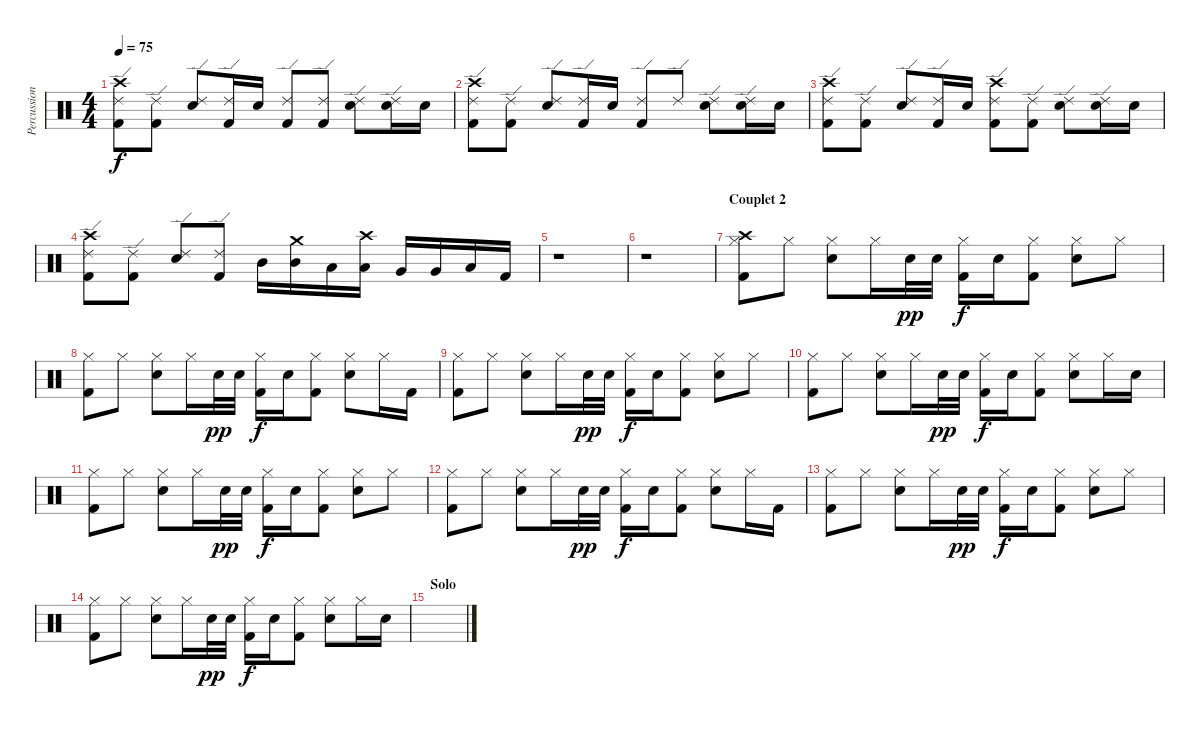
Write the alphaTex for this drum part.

\track ("Percussions" "Percussion") {instrument percussion}
\staff {score}
\articulation defaults
\ts (4 4)
\tempo 75
\clef neutral
\ks c
("Crash high (hit)" "Kick (hit) 2" "Ride (edge) 2").8{dy f} ("Kick (hit) 2" "Ride (edge) 2").8 ("Snare (hit) 2" "Ride (edge) 2").8 ("Kick (hit) 2" "Ride (edge) 2").16 "Snare (hit) 2".16 ("Kick (hit) 2" "Ride (edge) 2").8 ("Kick (hit) 2" "Ride (edge) 2").8 ("Snare (hit) 2" "Ride (edge) 2").8 ("Snare (hit) 2" "Ride (edge) 2").16 "Snare (hit) 2".16 |
("Crash high (hit)" "Kick (hit) 2" "Ride (edge) 2").8 ("Kick (hit) 2" "Ride (edge) 2").8 ("Snare (hit) 2" "Ride (edge) 2").8 ("Kick (hit) 2" "Ride (edge) 2").16 "Snare (hit) 2".16 ("Kick (hit) 2" "Ride (edge) 2").8 "Ride (edge) 2".8 ("Snare (hit) 2" "Ride (edge) 2").8 ("Snare (hit) 2" "Ride (edge) 2").16 "Snare (hit) 2".16 |
("Crash high (hit)" "Kick (hit) 2" "Ride (edge) 2").8 ("Kick (hit) 2" "Ride (edge) 2").8 ("Snare (hit) 2" "Ride (edge) 2").8 ("Kick (hit) 2" "Ride (edge) 2").16 "Snare (hit) 2".16 ("Crash high (hit)" "Kick (hit) 2" "Ride (edge) 2").8 ("Kick (hit) 2" "Ride (edge) 2").8 ("Snare (hit) 2" "Ride (edge) 2").8 ("Snare (hit) 2" "Ride (edge) 2").16 "Snare (hit) 2".16 |
("Crash high (hit)" "Kick (hit) 2" "Ride (edge) 2").8 ("Kick (hit) 2" "Ride (edge) 2").8 ("Electric Snare (hit)" "Ride (edge) 2").8 ("Kick (hit) 2" "Ride (edge) 2").8 "Mid Tom (hit)".16 ("Crash medium (hit)" "Mid Tom (hit)").16 "Low Tom (hit)".16 ("Crash high (hit)" "Low Tom (hit)").16 "Very Low Tom (hit)".16 "Very Low Tom (hit)".16 "Low Floor Tom (hit)".16 "Kick (hit) 2".16 |
r.1 |
r.1 |
\section ("" "Couplet 2")
("Crash high (hit)" "Kick (hit) 2" "Hi-Hat (closed)").8 "Hi-Hat (closed)".8 ("Snare (hit) 2" "Hi-Hat (closed)").8 "Hi-Hat (closed)".16 "Snare (hit) 2".32{dy pp} "Snare (hit) 2".32 ("Kick (hit) 2" "Hi-Hat (closed)").16{dy f} "Snare (hit) 2".16 ("Kick (hit) 2" "Hi-Hat (closed)").8 ("Snare (hit) 2" "Hi-Hat (closed)").8 "Hi-Hat (closed)".8 |
("Kick (hit) 2" "Hi-Hat (closed)").8 "Hi-Hat (closed)".8 ("Snare (hit) 2" "Hi-Hat (closed)").8 "Hi-Hat (closed)".16 "Snare (hit) 2".32{dy pp} "Snare (hit) 2".32 ("Kick (hit) 2" "Hi-Hat (closed)").16{dy f} "Snare (hit) 2".16 ("Kick (hit) 2" "Hi-Hat (closed)").8 ("Snare (hit) 2" "Hi-Hat (closed)").8 "Hi-Hat (closed)".16 "Kick (hit) 2".16 |
("Kick (hit) 2" "Hi-Hat (closed)").8 "Hi-Hat (closed)".8 ("Snare (hit) 2" "Hi-Hat (closed)").8 "Hi-Hat (closed)".16 "Snare (hit) 2".32{dy pp} "Snare (hit) 2".32 ("Kick (hit) 2" "Hi-Hat (closed)").16{dy f} "Snare (hit) 2".16 ("Kick (hit) 2" "Hi-Hat (closed)").8 ("Snare (hit) 2" "Hi-Hat (closed)").8 "Hi-Hat (closed)".8 |
("Kick (hit) 2" "Hi-Hat (closed)").8 "Hi-Hat (closed)".8 ("Snare (hit) 2" "Hi-Hat (closed)").8 "Hi-Hat (closed)".16 "Snare (hit) 2".32{dy pp} "Snare (hit) 2".32 ("Kick (hit) 2" "Hi-Hat (closed)").16{dy f} "Snare (hit) 2".16 ("Kick (hit) 2" "Hi-Hat (closed)").8 ("Snare (hit) 2" "Hi-Hat (closed)").8 "Hi-Hat (closed)".16 "Snare (hit) 2".16 |
("Kick (hit) 2" "Hi-Hat (closed)").8 "Hi-Hat (closed)".8 ("Snare (hit) 2" "Hi-Hat (closed)").8 "Hi-Hat (closed)".16 "Snare (hit) 2".32{dy pp} "Snare (hit) 2".32 ("Kick (hit) 2" "Hi-Hat (closed)").16{dy f} "Snare (hit) 2".16 ("Kick (hit) 2" "Hi-Hat (closed)").8 ("Snare (hit) 2" "Hi-Hat (closed)").8 "Hi-Hat (closed)".8 |
("Kick (hit) 2" "Hi-Hat (closed)").8 "Hi-Hat (closed)".8 ("Snare (hit) 2" "Hi-Hat (closed)").8 "Hi-Hat (closed)".16 "Snare (hit) 2".32{dy pp} "Snare (hit) 2".32 ("Kick (hit) 2" "Hi-Hat (closed)").16{dy f} "Snare (hit) 2".16 ("Kick (hit) 2" "Hi-Hat (closed)").8 ("Snare (hit) 2" "Hi-Hat (closed)").8 "Hi-Hat (closed)".16 "Kick (hit) 2".16 |
("Kick (hit) 2" "Hi-Hat (closed)").8 "Hi-Hat (closed)".8 ("Snare (hit) 2" "Hi-Hat (closed)").8 "Hi-Hat (closed)".16 "Snare (hit) 2".32{dy pp} "Snare (hit) 2".32 ("Kick (hit) 2" "Hi-Hat (closed)").16{dy f} "Snare (hit) 2".16 ("Kick (hit) 2" "Hi-Hat (closed)").8 ("Snare (hit) 2" "Hi-Hat (closed)").8 "Hi-Hat (closed)".8 |
("Kick (hit) 2" "Hi-Hat (closed)").8 "Hi-Hat (closed)".8 ("Snare (hit) 2" "Hi-Hat (closed)").8 "Hi-Hat (closed)".16 "Snare (hit) 2".32{dy pp} "Snare (hit) 2".32 ("Kick (hit) 2" "Hi-Hat (closed)").16{dy f} "Snare (hit) 2".16 ("Kick (hit) 2" "Hi-Hat (closed)").8 ("Snare (hit) 2" "Hi-Hat (closed)").8 "Hi-Hat (closed)".16 "Snare (hit) 2".16 |
\section ("" "Solo")
